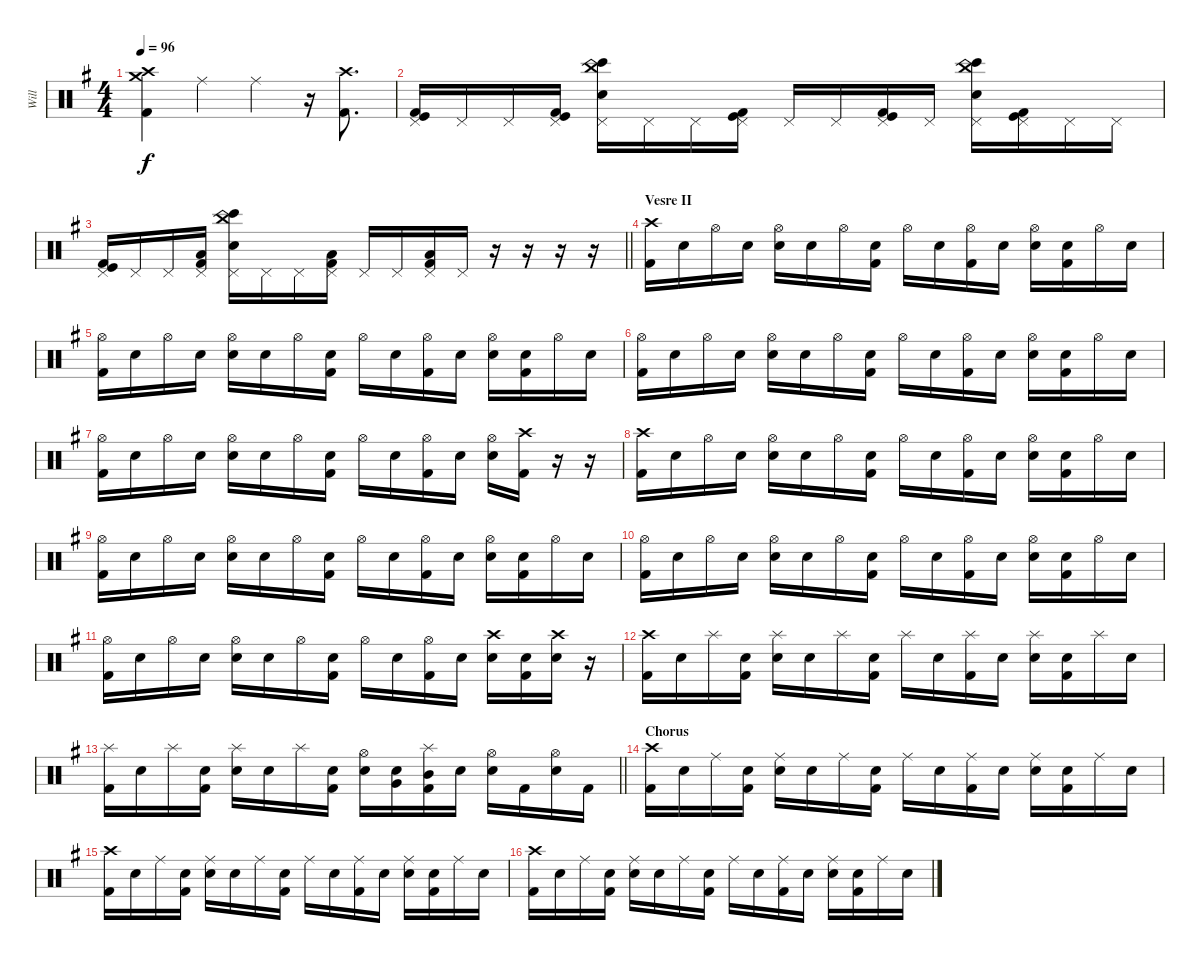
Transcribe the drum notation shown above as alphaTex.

\track ("Will" "Will") {instrument percussion}
\staff {score}
\articulation defaults
\ts (4 4)
\tempo 96
\clef neutral
\ks g
("Crash high (hit)" "Crash medium (hit)" "Kick (hit) 2").4{dy f} "Ride (middle)".4 "Ride (middle)".4 r.16 ("Crash high (hit)" "Kick (hit) 2").8{d} |
("Pedal Hi-Hat (hit)" "Kick (hit)" "Kick (hit) 2").16{volume 10} "Pedal Hi-Hat (hit)".16 "Pedal Hi-Hat (hit)".16 ("Pedal Hi-Hat (hit)" "Kick (hit) 2" "Kick (hit)").16 ("Pedal Hi-Hat (hit)" "China (hit)" "Snare (hit) 2" "Bongo High (hit)").16 "Pedal Hi-Hat (hit)".16 "Pedal Hi-Hat (hit)".16 ("Pedal Hi-Hat (hit)" "Kick (hit) 2" "Kick (hit)").16 "Pedal Hi-Hat (hit)".16 "Pedal Hi-Hat (hit)".16 ("Pedal Hi-Hat (hit)" "Kick (hit) 2" "Kick (hit)").16 "Pedal Hi-Hat (hit)".16 ("Pedal Hi-Hat (hit)" "China (hit)" "Snare (hit) 2" "Bongo High (hit)").16 ("Pedal Hi-Hat (hit)" "Kick (hit) 2" "Kick (hit)").16 "Pedal Hi-Hat (hit)".16 "Pedal Hi-Hat (hit)".16 |
\barLineRight lightlight
("Pedal Hi-Hat (hit)" "Kick (hit)" "Kick (hit) 2").16 "Pedal Hi-Hat (hit)".16 "Pedal Hi-Hat (hit)".16 ("Pedal Hi-Hat (hit)" "Kick (hit) 2" "Low Floor Tom (hit)").16 ("Pedal Hi-Hat (hit)" "China (hit)" "Snare (hit) 2" "Bongo High (hit)").16 "Pedal Hi-Hat (hit)".16 "Pedal Hi-Hat (hit)".16 ("Pedal Hi-Hat (hit)" "Kick (hit) 2" "Low Floor Tom (hit)").16 "Pedal Hi-Hat (hit)".16 "Pedal Hi-Hat (hit)".16 ("Pedal Hi-Hat (hit)" "Kick (hit) 2" "Low Floor Tom (hit)").16 "Pedal Hi-Hat (hit)".16 r.16 r.16 r.16 r.16 |
\section ("" "Vesre II")
("Crash high (hit)" "Kick (hit) 2").16{volume 13} "Snare (hit)".16 "Hi-Hat (open)".16 "Snare (hit)".16 ("Hi-Hat (open)" "Snare (hit) 2").16 "Snare (hit)".16 "Hi-Hat (open)".16 ("Snare (hit)" "Kick (hit) 2").16 "Hi-Hat (open)".16 "Snare (hit)".16 ("Hi-Hat (open)" "Kick (hit) 2").16 "Snare (hit)".16 ("Hi-Hat (open)" "Snare (hit) 2").16 ("Snare (hit)" "Kick (hit) 2").16 "Hi-Hat (open)".16 "Snare (hit)".16 |
("Hi-Hat (open)" "Kick (hit) 2").16 "Snare (hit)".16 "Hi-Hat (open)".16 "Snare (hit)".16 ("Hi-Hat (open)" "Snare (hit) 2").16 "Snare (hit)".16 "Hi-Hat (open)".16 ("Snare (hit)" "Kick (hit) 2").16 "Hi-Hat (open)".16 "Snare (hit)".16 ("Hi-Hat (open)" "Kick (hit) 2").16 "Snare (hit)".16 ("Hi-Hat (open)" "Snare (hit) 2").16 ("Snare (hit)" "Kick (hit) 2").16 "Hi-Hat (open)".16 "Snare (hit)".16 |
("Hi-Hat (open)" "Kick (hit) 2").16 "Snare (hit)".16 "Hi-Hat (open)".16 "Snare (hit)".16 ("Hi-Hat (open)" "Snare (hit) 2").16 "Snare (hit)".16 "Hi-Hat (open)".16 ("Snare (hit)" "Kick (hit) 2").16 "Hi-Hat (open)".16 "Snare (hit)".16 ("Hi-Hat (open)" "Kick (hit) 2").16 "Snare (hit)".16 ("Hi-Hat (open)" "Snare (hit) 2").16 ("Snare (hit)" "Kick (hit) 2").16 "Hi-Hat (open)".16 "Snare (hit)".16 |
("Hi-Hat (open)" "Kick (hit) 2").16 "Snare (hit)".16 "Hi-Hat (open)".16 "Snare (hit)".16 ("Hi-Hat (open)" "Snare (hit) 2").16 "Snare (hit)".16 "Hi-Hat (open)".16 ("Snare (hit)" "Kick (hit) 2").16 "Hi-Hat (open)".16 "Snare (hit)".16 ("Hi-Hat (open)" "Kick (hit) 2").16 "Snare (hit)".16 ("Hi-Hat (open)" "Snare (hit) 2").16 ("Crash high (hit)" "Kick (hit) 2").16 r.16 r.16 |
("Crash high (hit)" "Kick (hit) 2").16 "Snare (hit)".16 "Hi-Hat (open)".16 "Snare (hit)".16 ("Hi-Hat (open)" "Snare (hit) 2").16 "Snare (hit)".16 "Hi-Hat (open)".16 ("Snare (hit)" "Kick (hit) 2").16 "Hi-Hat (open)".16 "Snare (hit)".16 ("Hi-Hat (open)" "Kick (hit) 2").16 "Snare (hit)".16 ("Hi-Hat (open)" "Snare (hit) 2").16 ("Snare (hit)" "Kick (hit) 2").16 "Hi-Hat (open)".16 "Snare (hit)".16 |
("Hi-Hat (open)" "Kick (hit) 2").16 "Snare (hit)".16 "Hi-Hat (open)".16 "Snare (hit)".16 ("Hi-Hat (open)" "Snare (hit) 2").16 "Snare (hit)".16 "Hi-Hat (open)".16 ("Snare (hit)" "Kick (hit) 2").16 "Hi-Hat (open)".16 "Snare (hit)".16 ("Hi-Hat (open)" "Kick (hit) 2").16 "Snare (hit)".16 ("Hi-Hat (open)" "Snare (hit) 2").16 ("Snare (hit)" "Kick (hit) 2").16 "Hi-Hat (open)".16 "Snare (hit)".16 |
("Hi-Hat (open)" "Kick (hit) 2").16 "Snare (hit)".16 "Hi-Hat (open)".16 "Snare (hit)".16 ("Hi-Hat (open)" "Snare (hit) 2").16 "Snare (hit)".16 "Hi-Hat (open)".16 ("Snare (hit)" "Kick (hit) 2").16 "Hi-Hat (open)".16 "Snare (hit)".16 ("Hi-Hat (open)" "Kick (hit) 2").16 "Snare (hit)".16 ("Hi-Hat (open)" "Snare (hit) 2").16 ("Snare (hit)" "Kick (hit) 2").16 "Hi-Hat (open)".16 "Snare (hit)".16 |
("Hi-Hat (open)" "Kick (hit) 2").16 "Snare (hit)".16 "Hi-Hat (open)".16 "Snare (hit)".16 ("Hi-Hat (open)" "Snare (hit) 2").16 "Snare (hit)".16 "Hi-Hat (open)".16 ("Snare (hit)" "Kick (hit) 2").16 "Hi-Hat (open)".16 "Snare (hit)".16 ("Hi-Hat (open)" "Kick (hit) 2").16 "Snare (hit)".16 ("Crash high (hit)" "Snare (hit) 2").16 ("Snare (hit)" "Kick (hit) 2").16 ("Crash high (hit)" "Snare (hit) 2").16 r.16 |
("Crash high (hit)" "Kick (hit) 2").16 "Snare (hit)".16 "Splash (hit)".16 ("Snare (hit)" "Kick (hit) 2").16 ("Splash (hit)" "Snare (hit) 2").16 "Snare (hit)".16 "Splash (hit)".16 ("Snare (hit)" "Kick (hit) 2").16 "Splash (hit)".16 "Snare (hit)".16 ("Splash (hit)" "Kick (hit) 2").16 "Snare (hit)".16 ("Splash (hit)" "Snare (hit) 2").16 ("Snare (hit)" "Kick (hit) 2").16 "Splash (hit)".16 "Snare (hit)".16 |
\barLineRight lightlight
("Splash (hit)" "Kick (hit) 2").16 "Snare (hit)".16 "Splash (hit)".16 ("Snare (hit)" "Kick (hit) 2").16 ("Splash (hit)" "Snare (hit) 2").16 "Snare (hit)".16 "Splash (hit)".16 ("Snare (hit)" "Kick (hit) 2").16 ("Hi-Hat (open)" "Snare (hit) 2").16 ("Snare (hit)" "Very Low Tom (hit)").16 ("Splash (hit)" "Mid Tom (hit)" "Kick (hit) 2").16 "Snare (hit)".16 ("Hi-Hat (open)" "Snare (hit) 2").16 "Kick (hit) 2".16 ("Hi-Hat (open)" "Snare (hit) 2").16 "Kick (hit) 2".16 |
\section ("" "Chorus")
("Crash high (hit)" "Kick (hit) 2").16 "Snare (hit)".16 "Ride (middle)".16 ("Snare (hit)" "Kick (hit) 2").16 ("Ride (middle)" "Snare (hit) 2").16 "Snare (hit)".16 "Ride (middle)".16 ("Snare (hit)" "Kick (hit) 2").16 "Ride (middle)".16 "Snare (hit)".16 ("Ride (middle)" "Kick (hit) 2").16 "Snare (hit)".16 ("Ride (middle)" "Snare (hit) 2").16 ("Snare (hit)" "Kick (hit) 2").16 "Ride (middle)".16 "Snare (hit)".16 |
("Crash high (hit)" "Kick (hit) 2").16 "Snare (hit)".16 "Ride (middle)".16 ("Snare (hit)" "Kick (hit) 2").16 ("Ride (middle)" "Snare (hit) 2").16 "Snare (hit)".16 "Ride (middle)".16 ("Snare (hit)" "Kick (hit) 2").16 "Ride (middle)".16 "Snare (hit)".16 ("Ride (middle)" "Kick (hit) 2").16 "Snare (hit)".16 ("Ride (middle)" "Snare (hit) 2").16 ("Snare (hit)" "Kick (hit) 2").16 "Ride (middle)".16 "Snare (hit)".16 |
("Crash high (hit)" "Kick (hit) 2").16 "Snare (hit)".16 "Ride (middle)".16 ("Snare (hit)" "Kick (hit) 2").16 ("Ride (middle)" "Snare (hit) 2").16 "Snare (hit)".16 "Ride (middle)".16 ("Snare (hit)" "Kick (hit) 2").16 "Ride (middle)".16 "Snare (hit)".16 ("Ride (middle)" "Kick (hit) 2").16 "Snare (hit)".16 ("Ride (middle)" "Snare (hit) 2").16 ("Snare (hit)" "Kick (hit) 2").16 "Ride (middle)".16 "Snare (hit)".16
